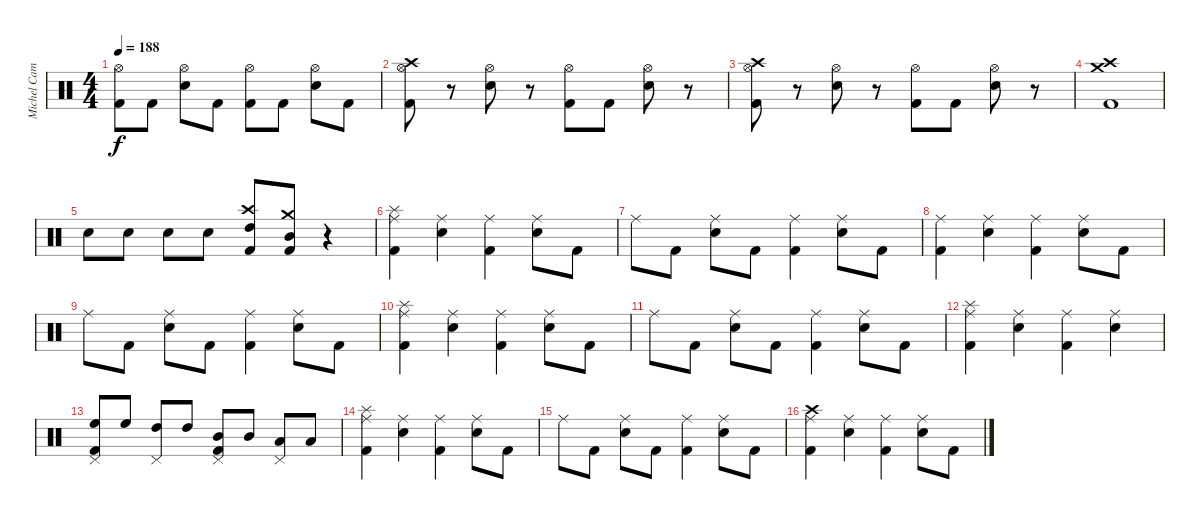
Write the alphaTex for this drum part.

\track ("Michel Camiade" "Michel Cam") {instrument percussion}
\staff {score}
\articulation defaults
\ts (4 4)
\tempo 188
\clef neutral
\ks c
("Hi-Hat (open)" "Kick (hit) 2").8{dy f} "Kick (hit) 2".8 ("Hi-Hat (open)" "Snare (hit) 2").8 "Kick (hit) 2".8 ("Hi-Hat (open)" "Kick (hit) 2").8 "Kick (hit) 2".8 ("Hi-Hat (open)" "Snare (hit) 2").8 "Kick (hit) 2".8 |
("Crash high (hit)" "Hi-Hat (open)" "Kick (hit) 2").8 r.8 ("Hi-Hat (open)" "Snare (hit) 2").8 r.8 ("Hi-Hat (open)" "Kick (hit) 2").8 "Kick (hit) 2".8 ("Hi-Hat (open)" "Snare (hit) 2").8 r.8 |
("Crash high (hit)" "Hi-Hat (open)" "Kick (hit) 2").8 r.8 ("Hi-Hat (open)" "Snare (hit) 2").8 r.8 ("Hi-Hat (open)" "Kick (hit) 2").8 "Kick (hit) 2".8 ("Hi-Hat (open)" "Snare (hit) 2").8 r.8 |
("Crash high (hit)" "Crash medium (hit)" "Kick (hit) 2").1 |
"Snare (hit) 2".8 "Snare (hit) 2".8 "Snare (hit) 2".8 "Snare (hit) 2".8 ("Crash high (hit)" "High Tom (hit)" "Kick (hit) 2").8 ("Crash medium (hit)" "Mid Tom (hit)" "Kick (hit) 2").8 r.4 |
("Splash (hit)" "Ride (middle)" "Kick (hit) 2").4 ("Ride (middle)" "Snare (hit) 2").4 ("Ride (middle)" "Kick (hit) 2").4 ("Ride (middle)" "Snare (hit) 2").8 "Kick (hit) 2".8 |
"Ride (middle)".8 "Kick (hit) 2".8 ("Ride (middle)" "Snare (hit) 2").8 "Kick (hit) 2".8 ("Ride (middle)" "Kick (hit) 2").4 ("Ride (middle)" "Snare (hit) 2").8 "Kick (hit) 2".8 |
("Ride (middle)" "Kick (hit) 2").4 ("Ride (middle)" "Snare (hit) 2").4 ("Ride (middle)" "Kick (hit) 2").4 ("Ride (middle)" "Snare (hit) 2").8 "Kick (hit) 2".8 |
"Ride (middle)".8 "Kick (hit) 2".8 ("Ride (middle)" "Snare (hit) 2").8 "Kick (hit) 2".8 ("Ride (middle)" "Kick (hit) 2").4 ("Ride (middle)" "Snare (hit) 2").8 "Kick (hit) 2".8 |
("Splash (hit)" "Ride (middle)" "Kick (hit) 2").4 ("Ride (middle)" "Snare (hit) 2").4 ("Ride (middle)" "Kick (hit) 2").4 ("Ride (middle)" "Snare (hit) 2").8 "Kick (hit) 2".8 |
"Ride (middle)".8 "Kick (hit) 2".8 ("Ride (middle)" "Snare (hit) 2").8 "Kick (hit) 2".8 ("Ride (middle)" "Kick (hit) 2").4 ("Ride (middle)" "Snare (hit) 2").8 "Kick (hit) 2".8 |
("Splash (hit)" "Ride (middle)" "Kick (hit) 2").4 ("Ride (middle)" "Snare (hit) 2").4 ("Ride (middle)" "Kick (hit) 2").4 ("Ride (middle)" "Snare (hit) 2").4 |
("High Floor Tom (hit)" "Pedal Hi-Hat (hit)" "Kick (hit) 2").8 "High Floor Tom (hit)".8 ("High Tom (hit)" "Pedal Hi-Hat (hit)").8 "High Tom (hit)".8 ("Mid Tom (hit)" "Pedal Hi-Hat (hit)" "Kick (hit) 2").8 "Mid Tom (hit)".8 ("Low Tom (hit)" "Pedal Hi-Hat (hit)").8 "Low Tom (hit)".8 |
("Splash (hit)" "Ride (middle)" "Kick (hit) 2").4 ("Ride (middle)" "Snare (hit) 2").4 ("Ride (middle)" "Kick (hit) 2").4 ("Ride (middle)" "Snare (hit) 2").8 "Kick (hit) 2".8 |
"Ride (middle)".8 "Kick (hit) 2".8 ("Ride (middle)" "Snare (hit) 2").8 "Kick (hit) 2".8 ("Ride (middle)" "Kick (hit) 2").4 ("Ride (middle)" "Snare (hit) 2").8 "Kick (hit) 2".8 |
("Crash high (hit)" "Ride (middle)" "Kick (hit) 2").4 ("Ride (middle)" "Snare (hit) 2").4 ("Ride (middle)" "Kick (hit) 2").4 ("Ride (middle)" "Snare (hit) 2").8 "Kick (hit) 2".8
